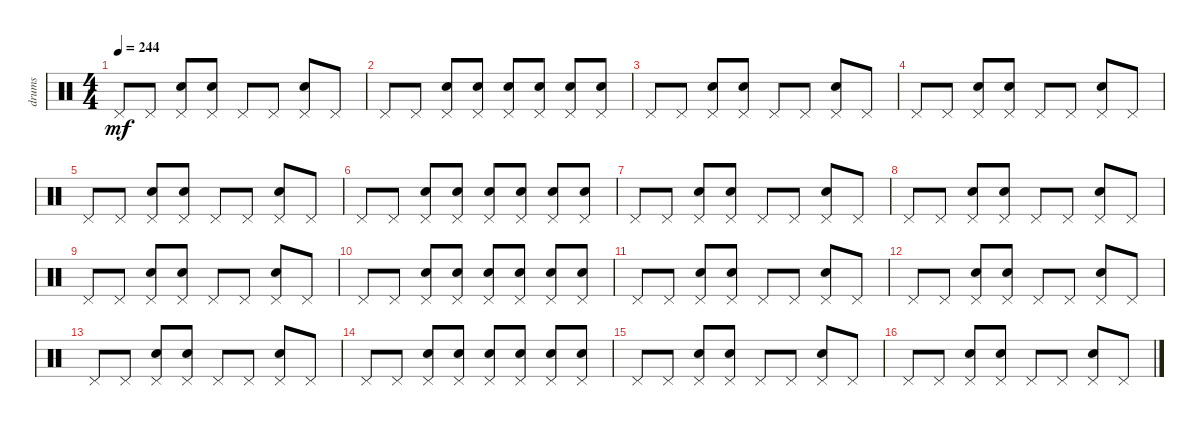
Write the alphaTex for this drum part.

\track ("drums" "drums") {instrument percussion}
\staff {score}
\articulation defaults
\ts (4 4)
\tempo 244
\clef neutral
\ks c "Pedal Hi-Hat (hit)".8{dy mf} "Pedal Hi-Hat (hit)".8
("Pedal Hi-Hat (hit)" "Snare (hit) 2").8 ("Pedal Hi-Hat (hit)" "Snare (hit) 2").8 "Pedal Hi-Hat (hit)".8 "Pedal Hi-Hat (hit)".8 ("Pedal Hi-Hat (hit)" "Snare (hit) 2").8 "Pedal Hi-Hat (hit)".8 |
"Pedal Hi-Hat (hit)".8 "Pedal Hi-Hat (hit)".8 ("Pedal Hi-Hat (hit)" "Snare (hit) 2").8 ("Pedal Hi-Hat (hit)" "Snare (hit) 2").8 ("Pedal Hi-Hat (hit)" "Snare (hit) 2").8 ("Pedal Hi-Hat (hit)" "Snare (hit) 2").8 ("Pedal Hi-Hat (hit)" "Snare (hit) 2").8 ("Pedal Hi-Hat (hit)" "Snare (hit) 2").8 |
"Pedal Hi-Hat (hit)".8 "Pedal Hi-Hat (hit)".8 ("Pedal Hi-Hat (hit)" "Snare (hit) 2").8 ("Pedal Hi-Hat (hit)" "Snare (hit) 2").8 "Pedal Hi-Hat (hit)".8 "Pedal Hi-Hat (hit)".8 ("Pedal Hi-Hat (hit)" "Snare (hit) 2").8 "Pedal Hi-Hat (hit)".8 |
"Pedal Hi-Hat (hit)".8 "Pedal Hi-Hat (hit)".8 ("Pedal Hi-Hat (hit)" "Snare (hit) 2").8 ("Pedal Hi-Hat (hit)" "Snare (hit) 2").8 "Pedal Hi-Hat (hit)".8 "Pedal Hi-Hat (hit)".8 ("Pedal Hi-Hat (hit)" "Snare (hit) 2").8 "Pedal Hi-Hat (hit)".8 |
"Pedal Hi-Hat (hit)".8 "Pedal Hi-Hat (hit)".8 ("Pedal Hi-Hat (hit)" "Snare (hit) 2").8 ("Pedal Hi-Hat (hit)" "Snare (hit) 2").8 "Pedal Hi-Hat (hit)".8 "Pedal Hi-Hat (hit)".8 ("Pedal Hi-Hat (hit)" "Snare (hit) 2").8 "Pedal Hi-Hat (hit)".8 |
"Pedal Hi-Hat (hit)".8 "Pedal Hi-Hat (hit)".8 ("Pedal Hi-Hat (hit)" "Snare (hit) 2").8 ("Pedal Hi-Hat (hit)" "Snare (hit) 2").8 ("Pedal Hi-Hat (hit)" "Snare (hit) 2").8 ("Pedal Hi-Hat (hit)" "Snare (hit) 2").8 ("Pedal Hi-Hat (hit)" "Snare (hit) 2").8 ("Pedal Hi-Hat (hit)" "Snare (hit) 2").8 |
"Pedal Hi-Hat (hit)".8 "Pedal Hi-Hat (hit)".8 ("Pedal Hi-Hat (hit)" "Snare (hit) 2").8 ("Pedal Hi-Hat (hit)" "Snare (hit) 2").8 "Pedal Hi-Hat (hit)".8 "Pedal Hi-Hat (hit)".8 ("Pedal Hi-Hat (hit)" "Snare (hit) 2").8 "Pedal Hi-Hat (hit)".8 |
"Pedal Hi-Hat (hit)".8 "Pedal Hi-Hat (hit)".8 ("Pedal Hi-Hat (hit)" "Snare (hit) 2").8 ("Pedal Hi-Hat (hit)" "Snare (hit) 2").8 "Pedal Hi-Hat (hit)".8 "Pedal Hi-Hat (hit)".8 ("Pedal Hi-Hat (hit)" "Snare (hit) 2").8 "Pedal Hi-Hat (hit)".8 |
"Pedal Hi-Hat (hit)".8 "Pedal Hi-Hat (hit)".8 ("Pedal Hi-Hat (hit)" "Snare (hit) 2").8 ("Pedal Hi-Hat (hit)" "Snare (hit) 2").8 "Pedal Hi-Hat (hit)".8 "Pedal Hi-Hat (hit)".8 ("Pedal Hi-Hat (hit)" "Snare (hit) 2").8 "Pedal Hi-Hat (hit)".8 |
"Pedal Hi-Hat (hit)".8 "Pedal Hi-Hat (hit)".8 ("Pedal Hi-Hat (hit)" "Snare (hit) 2").8 ("Pedal Hi-Hat (hit)" "Snare (hit) 2").8 ("Pedal Hi-Hat (hit)" "Snare (hit) 2").8 ("Pedal Hi-Hat (hit)" "Snare (hit) 2").8 ("Pedal Hi-Hat (hit)" "Snare (hit) 2").8 ("Pedal Hi-Hat (hit)" "Snare (hit) 2").8 |
"Pedal Hi-Hat (hit)".8 "Pedal Hi-Hat (hit)".8 ("Pedal Hi-Hat (hit)" "Snare (hit) 2").8 ("Pedal Hi-Hat (hit)" "Snare (hit) 2").8 "Pedal Hi-Hat (hit)".8 "Pedal Hi-Hat (hit)".8 ("Pedal Hi-Hat (hit)" "Snare (hit) 2").8 "Pedal Hi-Hat (hit)".8 |
"Pedal Hi-Hat (hit)".8 "Pedal Hi-Hat (hit)".8 ("Pedal Hi-Hat (hit)" "Snare (hit) 2").8 ("Pedal Hi-Hat (hit)" "Snare (hit) 2").8 "Pedal Hi-Hat (hit)".8 "Pedal Hi-Hat (hit)".8 ("Pedal Hi-Hat (hit)" "Snare (hit) 2").8 "Pedal Hi-Hat (hit)".8 |
"Pedal Hi-Hat (hit)".8 "Pedal Hi-Hat (hit)".8 ("Pedal Hi-Hat (hit)" "Snare (hit) 2").8 ("Pedal Hi-Hat (hit)" "Snare (hit) 2").8 "Pedal Hi-Hat (hit)".8 "Pedal Hi-Hat (hit)".8 ("Pedal Hi-Hat (hit)" "Snare (hit) 2").8 "Pedal Hi-Hat (hit)".8 |
"Pedal Hi-Hat (hit)".8 "Pedal Hi-Hat (hit)".8 ("Pedal Hi-Hat (hit)" "Snare (hit) 2").8 ("Pedal Hi-Hat (hit)" "Snare (hit) 2").8 ("Pedal Hi-Hat (hit)" "Snare (hit) 2").8 ("Pedal Hi-Hat (hit)" "Snare (hit) 2").8 ("Pedal Hi-Hat (hit)" "Snare (hit) 2").8 ("Pedal Hi-Hat (hit)" "Snare (hit) 2").8 |
"Pedal Hi-Hat (hit)".8 "Pedal Hi-Hat (hit)".8 ("Pedal Hi-Hat (hit)" "Snare (hit) 2").8 ("Pedal Hi-Hat (hit)" "Snare (hit) 2").8 "Pedal Hi-Hat (hit)".8 "Pedal Hi-Hat (hit)".8 ("Pedal Hi-Hat (hit)" "Snare (hit) 2").8 "Pedal Hi-Hat (hit)".8 |
"Pedal Hi-Hat (hit)".8 "Pedal Hi-Hat (hit)".8 ("Pedal Hi-Hat (hit)" "Snare (hit) 2").8 ("Pedal Hi-Hat (hit)" "Snare (hit) 2").8 "Pedal Hi-Hat (hit)".8 "Pedal Hi-Hat (hit)".8 ("Pedal Hi-Hat (hit)" "Snare (hit) 2").8 "Pedal Hi-Hat (hit)".8
